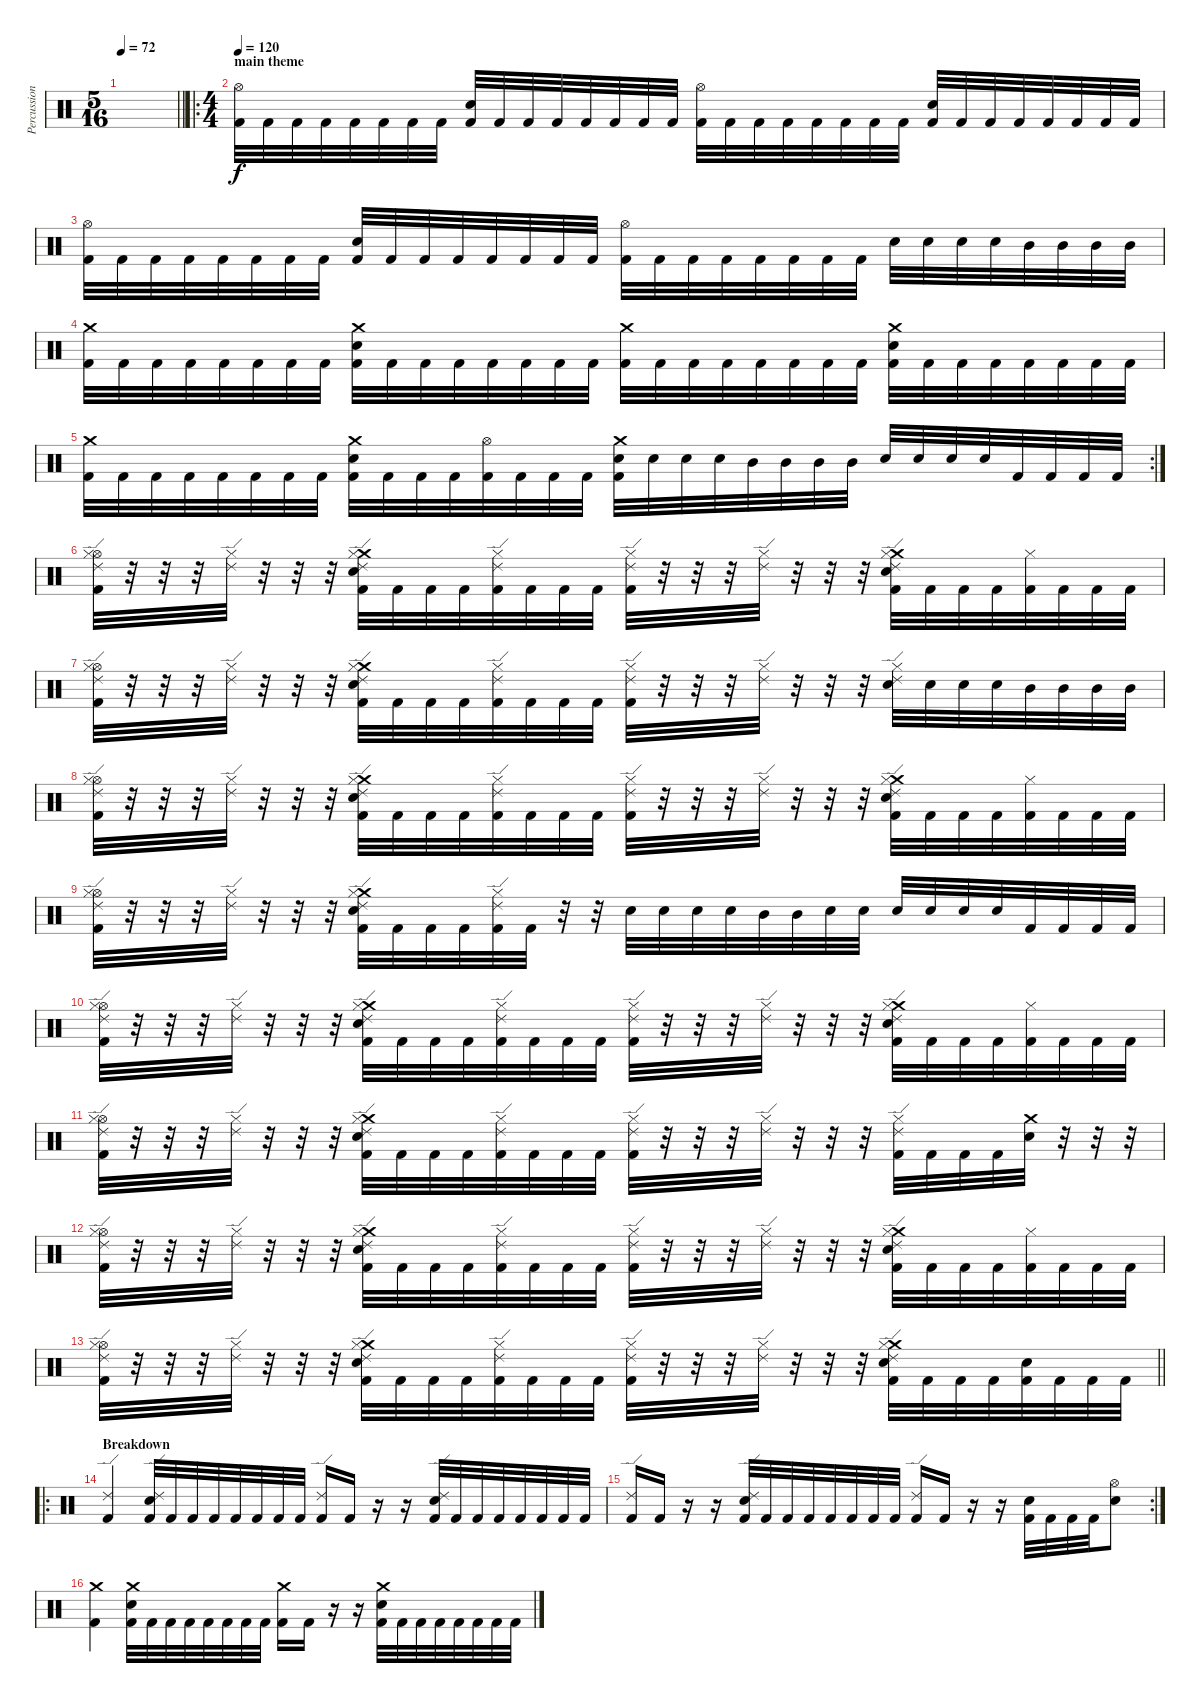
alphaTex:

\track ("Percussion" "Percussion") {instrument percussion}
\staff {score}
\articulation defaults
\ts (5 16)
\tempo 72
\clef neutral
\barLineRight lightlight
\ks c
|
\ro
\ts (4 4)
\section ("" "main theme")
\tempo 120
("Hi-Hat (open)" "Kick (hit) 2").32 "Kick (hit) 2".32 "Kick (hit) 2".32 "Kick (hit) 2".32 "Kick (hit) 2".32 "Kick (hit) 2".32 "Kick (hit) 2".32 "Kick (hit) 2".32 ("Electric Snare (hit)" "Kick (hit) 2").32 "Kick (hit) 2".32 "Kick (hit) 2".32 "Kick (hit) 2".32 "Kick (hit) 2".32 "Kick (hit) 2".32 "Kick (hit) 2".32 "Kick (hit) 2".32 ("Hi-Hat (open)" "Kick (hit) 2").32 "Kick (hit) 2".32 "Kick (hit) 2".32 "Kick (hit) 2".32 "Kick (hit) 2".32 "Kick (hit) 2".32 "Kick (hit) 2".32 "Kick (hit) 2".32 ("Electric Snare (hit)" "Kick (hit) 2").32 "Kick (hit) 2".32 "Kick (hit) 2".32 "Kick (hit) 2".32 "Kick (hit) 2".32 "Kick (hit) 2".32 "Kick (hit) 2".32 "Kick (hit) 2".32 |
("Hi-Hat (open)" "Kick (hit) 2").32 "Kick (hit) 2".32 "Kick (hit) 2".32 "Kick (hit) 2".32 "Kick (hit) 2".32 "Kick (hit) 2".32 "Kick (hit) 2".32 "Kick (hit) 2".32 ("Electric Snare (hit)" "Kick (hit) 2").32 "Kick (hit) 2".32 "Kick (hit) 2".32 "Kick (hit) 2".32 "Kick (hit) 2".32 "Kick (hit) 2".32 "Kick (hit) 2".32 "Kick (hit) 2".32 ("Hi-Hat (open)" "Kick (hit) 2").32 "Kick (hit) 2".32 "Kick (hit) 2".32 "Kick (hit) 2".32 "Kick (hit) 2".32 "Kick (hit) 2".32 "Kick (hit) 2".32 "Kick (hit) 2".32 "Electric Snare (hit)".32 "Electric Snare (hit)".32 "Electric Snare (hit)".32 "Electric Snare (hit)".32 "Mid Tom (hit)".32 "Mid Tom (hit)".32 "Mid Tom (hit)".32 "Mid Tom (hit)".32 |
("Crash medium (hit)" "Kick (hit) 2").32 "Kick (hit) 2".32 "Kick (hit) 2".32 "Kick (hit) 2".32 "Kick (hit) 2".32 "Kick (hit) 2".32 "Kick (hit) 2".32 "Kick (hit) 2".32 ("Crash medium (hit)" "Electric Snare (hit)" "Kick (hit) 2").32 "Kick (hit) 2".32 "Kick (hit) 2".32 "Kick (hit) 2".32 "Kick (hit) 2".32 "Kick (hit) 2".32 "Kick (hit) 2".32 "Kick (hit) 2".32 ("Crash medium (hit)" "Kick (hit) 2").32 "Kick (hit) 2".32 "Kick (hit) 2".32 "Kick (hit) 2".32 "Kick (hit) 2".32 "Kick (hit) 2".32 "Kick (hit) 2".32 "Kick (hit) 2".32 ("Crash medium (hit)" "Electric Snare (hit)" "Kick (hit) 2").32 "Kick (hit) 2".32 "Kick (hit) 2".32 "Kick (hit) 2".32 "Kick (hit) 2".32 "Kick (hit) 2".32 "Kick (hit) 2".32 "Kick (hit) 2".32 |
\rc 2
("Crash medium (hit)" "Kick (hit) 2").32 "Kick (hit) 2".32 "Kick (hit) 2".32 "Kick (hit) 2".32 "Kick (hit) 2".32 "Kick (hit) 2".32 "Kick (hit) 2".32 "Kick (hit) 2".32 ("Crash medium (hit)" "Electric Snare (hit)" "Kick (hit) 2").32 "Kick (hit) 2".32 "Kick (hit) 2".32 "Kick (hit) 2".32 ("Hi-Hat (open)" "Kick (hit) 2").32 "Kick (hit) 2".32 "Kick (hit) 2".32 "Kick (hit) 2".32 ("Crash medium (hit)" "Electric Snare (hit)" "Kick (hit) 2").32 "Electric Snare (hit)".32 "Electric Snare (hit)".32 "Electric Snare (hit)".32 "Mid Tom (hit)".32 "Mid Tom (hit)".32 "Mid Tom (hit)".32 "Mid Tom (hit)".32 "Electric Snare (hit)".32 "Electric Snare (hit)".32 "Electric Snare (hit)".32 "Electric Snare (hit)".32 "Kick (hit) 2".32 "Kick (hit) 2".32 "Kick (hit) 2".32 "Kick (hit) 2".32 |
("Hi-Hat (open)" "Ride (edge) 2" "Hi-Hat (closed)" "Kick (hit) 2").32 r.32 r.32 r.32 ("Ride (edge) 2" "Hi-Hat (closed)").32 r.32 r.32 r.32 ("Crash medium (hit)" "Ride (edge) 2" "Hi-Hat (closed)" "Electric Snare (hit)" "Kick (hit) 2").32 "Kick (hit) 2".32 "Kick (hit) 2".32 "Kick (hit) 2".32 ("Ride (edge) 2" "Hi-Hat (closed)" "Kick (hit) 2").32 "Kick (hit) 2".32 "Kick (hit) 2".32 "Kick (hit) 2".32 ("Ride (edge) 2" "Hi-Hat (closed)" "Kick (hit) 2").32 r.32 r.32 r.32 ("Ride (edge) 2" "Hi-Hat (closed)").32 r.32 r.32 r.32 ("Crash medium (hit)" "Ride (edge) 2" "Hi-Hat (closed)" "Electric Snare (hit)" "Kick (hit) 2").32 "Kick (hit) 2".32 "Kick (hit) 2".32 "Kick (hit) 2".32 ("Hi-Hat (closed)" "Kick (hit) 2").32 "Kick (hit) 2".32 "Kick (hit) 2".32 "Kick (hit) 2".32 |
("Hi-Hat (open)" "Ride (edge) 2" "Hi-Hat (closed)" "Kick (hit) 2").32 r.32 r.32 r.32 ("Ride (edge) 2" "Hi-Hat (closed)").32 r.32 r.32 r.32 ("Crash medium (hit)" "Ride (edge) 2" "Hi-Hat (closed)" "Electric Snare (hit)" "Kick (hit) 2").32 "Kick (hit) 2".32 "Kick (hit) 2".32 "Kick (hit) 2".32 ("Ride (edge) 2" "Hi-Hat (closed)" "Kick (hit) 2").32 "Kick (hit) 2".32 "Kick (hit) 2".32 "Kick (hit) 2".32 ("Ride (edge) 2" "Hi-Hat (closed)" "Kick (hit) 2").32 r.32 r.32 r.32 ("Ride (edge) 2" "Hi-Hat (closed)").32 r.32 r.32 r.32 ("Ride (edge) 2" "Hi-Hat (closed)" "Electric Snare (hit)").32 "Electric Snare (hit)".32 "Electric Snare (hit)".32 "Electric Snare (hit)".32 "Mid Tom (hit)".32 "Mid Tom (hit)".32 "Mid Tom (hit)".32 "Mid Tom (hit)".32 |
("Hi-Hat (open)" "Ride (edge) 2" "Hi-Hat (closed)" "Kick (hit) 2").32 r.32 r.32 r.32 ("Ride (edge) 2" "Hi-Hat (closed)").32 r.32 r.32 r.32 ("Crash medium (hit)" "Ride (edge) 2" "Hi-Hat (closed)" "Electric Snare (hit)" "Kick (hit) 2").32 "Kick (hit) 2".32 "Kick (hit) 2".32 "Kick (hit) 2".32 ("Ride (edge) 2" "Hi-Hat (closed)" "Kick (hit) 2").32 "Kick (hit) 2".32 "Kick (hit) 2".32 "Kick (hit) 2".32 ("Ride (edge) 2" "Hi-Hat (closed)" "Kick (hit) 2").32 r.32 r.32 r.32 ("Ride (edge) 2" "Hi-Hat (closed)").32 r.32 r.32 r.32 ("Crash medium (hit)" "Ride (edge) 2" "Hi-Hat (closed)" "Electric Snare (hit)" "Kick (hit) 2").32 "Kick (hit) 2".32 "Kick (hit) 2".32 "Kick (hit) 2".32 ("Hi-Hat (closed)" "Kick (hit) 2").32 "Kick (hit) 2".32 "Kick (hit) 2".32 "Kick (hit) 2".32 |
("Hi-Hat (open)" "Ride (edge) 2" "Hi-Hat (closed)" "Kick (hit) 2").32 r.32 r.32 r.32 ("Ride (edge) 2" "Hi-Hat (closed)").32 r.32 r.32 r.32 ("Crash medium (hit)" "Ride (edge) 2" "Hi-Hat (closed)" "Electric Snare (hit)" "Kick (hit) 2").32 "Kick (hit) 2".32 "Kick (hit) 2".32 "Kick (hit) 2".32 ("Ride (edge) 2" "Hi-Hat (closed)" "Kick (hit) 2").32 "Kick (hit) 2".32 r.32 r.32 "Electric Snare (hit)".32 "Electric Snare (hit)".32 "Electric Snare (hit)".32 "Electric Snare (hit)".32 "Mid Tom (hit)".32 "Mid Tom (hit)".32 "Electric Snare (hit)".32 "Electric Snare (hit)".32 "Electric Snare (hit)".32 "Electric Snare (hit)".32 "Electric Snare (hit)".32 "Electric Snare (hit)".32 "Kick (hit) 2".32 "Kick (hit) 2".32 "Kick (hit) 2".32 "Kick (hit) 2".32 |
("Hi-Hat (open)" "Ride (edge) 2" "Hi-Hat (closed)" "Kick (hit) 2").32 r.32 r.32 r.32 ("Ride (edge) 2" "Hi-Hat (closed)").32 r.32 r.32 r.32 ("Crash medium (hit)" "Ride (edge) 2" "Hi-Hat (closed)" "Electric Snare (hit)" "Kick (hit) 2").32 "Kick (hit) 2".32 "Kick (hit) 2".32 "Kick (hit) 2".32 ("Ride (edge) 2" "Hi-Hat (closed)" "Kick (hit) 2").32 "Kick (hit) 2".32 "Kick (hit) 2".32 "Kick (hit) 2".32 ("Ride (edge) 2" "Hi-Hat (closed)" "Kick (hit) 2").32 r.32 r.32 r.32 ("Ride (edge) 2" "Hi-Hat (closed)").32 r.32 r.32 r.32 ("Crash medium (hit)" "Ride (edge) 2" "Hi-Hat (closed)" "Electric Snare (hit)" "Kick (hit) 2").32 "Kick (hit) 2".32 "Kick (hit) 2".32 "Kick (hit) 2".32 ("Hi-Hat (closed)" "Kick (hit) 2").32 "Kick (hit) 2".32 "Kick (hit) 2".32 "Kick (hit) 2".32 |
("Hi-Hat (open)" "Ride (edge) 2" "Hi-Hat (closed)" "Kick (hit) 2").32 r.32 r.32 r.32 ("Ride (edge) 2" "Hi-Hat (closed)").32 r.32 r.32 r.32 ("Crash medium (hit)" "Ride (edge) 2" "Hi-Hat (closed)" "Electric Snare (hit)" "Kick (hit) 2").32 "Kick (hit) 2".32 "Kick (hit) 2".32 "Kick (hit) 2".32 ("Ride (edge) 2" "Hi-Hat (closed)" "Kick (hit) 2").32 "Kick (hit) 2".32 "Kick (hit) 2".32 "Kick (hit) 2".32 ("Ride (edge) 2" "Hi-Hat (closed)" "Kick (hit) 2").32 r.32 r.32 r.32 ("Ride (edge) 2" "Hi-Hat (closed)").32 r.32 r.32 r.32 ("Ride (edge) 2" "Hi-Hat (closed)" "Kick (hit) 2").32 "Kick (hit) 2".32 "Kick (hit) 2".32 "Kick (hit) 2".32 ("Crash medium (hit)" "Electric Snare (hit)").32 r.32 r.32 r.32 |
("Hi-Hat (open)" "Ride (edge) 2" "Hi-Hat (closed)" "Kick (hit) 2").32 r.32 r.32 r.32 ("Ride (edge) 2" "Hi-Hat (closed)").32 r.32 r.32 r.32 ("Crash medium (hit)" "Ride (edge) 2" "Hi-Hat (closed)" "Electric Snare (hit)" "Kick (hit) 2").32 "Kick (hit) 2".32 "Kick (hit) 2".32 "Kick (hit) 2".32 ("Ride (edge) 2" "Hi-Hat (closed)" "Kick (hit) 2").32 "Kick (hit) 2".32 "Kick (hit) 2".32 "Kick (hit) 2".32 ("Ride (edge) 2" "Hi-Hat (closed)" "Kick (hit) 2").32 r.32 r.32 r.32 ("Ride (edge) 2" "Hi-Hat (closed)").32 r.32 r.32 r.32 ("Crash medium (hit)" "Ride (edge) 2" "Hi-Hat (closed)" "Electric Snare (hit)" "Kick (hit) 2").32 "Kick (hit) 2".32 "Kick (hit) 2".32 "Kick (hit) 2".32 ("Hi-Hat (closed)" "Kick (hit) 2").32 "Kick (hit) 2".32 "Kick (hit) 2".32 "Kick (hit) 2".32 |
\barLineRight lightlight
("Hi-Hat (open)" "Ride (edge) 2" "Hi-Hat (closed)" "Kick (hit) 2").32 r.32 r.32 r.32 ("Ride (edge) 2" "Hi-Hat (closed)").32 r.32 r.32 r.32 ("Crash medium (hit)" "Ride (edge) 2" "Hi-Hat (closed)" "Electric Snare (hit)" "Kick (hit) 2").32 "Kick (hit) 2".32 "Kick (hit) 2".32 "Kick (hit) 2".32 ("Ride (edge) 2" "Hi-Hat (closed)" "Kick (hit) 2").32 "Kick (hit) 2".32 "Kick (hit) 2".32 "Kick (hit) 2".32 ("Ride (edge) 2" "Hi-Hat (closed)" "Kick (hit) 2").32 r.32 r.32 r.32 ("Ride (edge) 2" "Hi-Hat (closed)").32 r.32 r.32 r.32 ("Crash medium (hit)" "Ride (edge) 2" "Hi-Hat (closed)" "Electric Snare (hit)" "Kick (hit) 2").32 "Kick (hit) 2".32 "Kick (hit) 2".32 "Kick (hit) 2".32 ("Electric Snare (hit)" "Kick (hit) 2").32 "Kick (hit) 2".32 "Kick (hit) 2".32 "Kick (hit) 2".32 |
\ro
\section ("" "Breakdown")
("Ride (edge) 2" "Kick (hit) 2").4 ("Ride (edge) 2" "Electric Snare (hit)" "Kick (hit) 2").32 "Kick (hit) 2".32 "Kick (hit) 2".32 "Kick (hit) 2".32 "Kick (hit) 2".32 "Kick (hit) 2".32 "Kick (hit) 2".32 "Kick (hit) 2".32 ("Ride (edge) 2" "Kick (hit) 2").16 "Kick (hit) 2".16 r.16 r.16 ("Ride (edge) 2" "Electric Snare (hit)" "Kick (hit) 2").32 "Kick (hit) 2".32 "Kick (hit) 2".32 "Kick (hit) 2".32 "Kick (hit) 2".32 "Kick (hit) 2".32 "Kick (hit) 2".32 "Kick (hit) 2".32 |
\rc 2
("Ride (edge) 2" "Kick (hit) 2").16 "Kick (hit) 2".16 r.16 r.16 ("Ride (edge) 2" "Electric Snare (hit)" "Kick (hit) 2").32 "Kick (hit) 2".32 "Kick (hit) 2".32 "Kick (hit) 2".32 "Kick (hit) 2".32 "Kick (hit) 2".32 "Kick (hit) 2".32 "Kick (hit) 2".32 ("Ride (edge) 2" "Kick (hit) 2").16 "Kick (hit) 2".16 r.16 r.16 ("Electric Snare (hit)" "Kick (hit) 2").32 "Kick (hit) 2".32 "Kick (hit) 2".32 "Kick (hit) 2".32 ("Hi-Hat (open)" "Electric Snare (hit)").8 |
("Crash medium (hit)" "Kick (hit) 2").4 ("Crash medium (hit)" "Electric Snare (hit)" "Kick (hit) 2").32 "Kick (hit) 2".32 "Kick (hit) 2".32 "Kick (hit) 2".32 "Kick (hit) 2".32 "Kick (hit) 2".32 "Kick (hit) 2".32 "Kick (hit) 2".32 ("Crash medium (hit)" "Kick (hit) 2").16 "Kick (hit) 2".16 r.16 r.16 ("Crash medium (hit)" "Electric Snare (hit)" "Kick (hit) 2").32 "Kick (hit) 2".32 "Kick (hit) 2".32 "Kick (hit) 2".32 "Kick (hit) 2".32 "Kick (hit) 2".32 "Kick (hit) 2".32 "Kick (hit) 2".32
